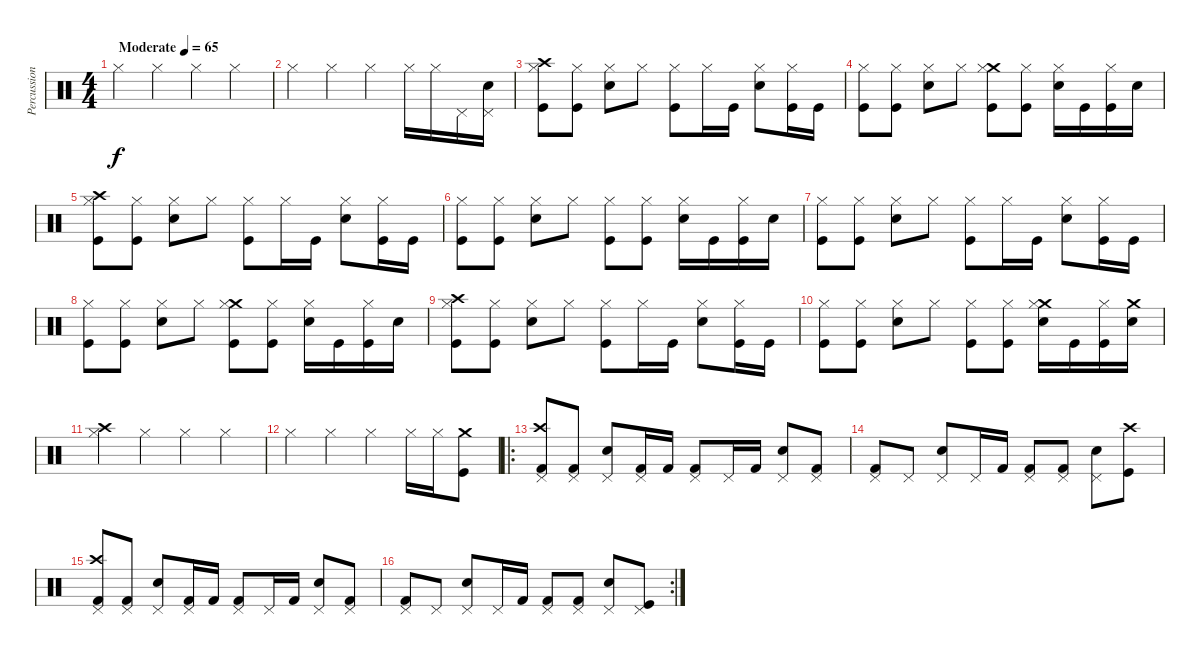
\track ("Percussion" "Percussion") {instrument percussion}
\staff {score}
\articulation defaults
\ts (4 4)
\tempo (65 "Moderate")
\clef neutral
\ks c "Hi-Hat (closed)".4{dy f} "Hi-Hat (closed)".4 "Hi-Hat (closed)".4 "Hi-Hat (closed)".4
|
"Hi-Hat (closed)".4 "Hi-Hat (closed)".4 "Hi-Hat (closed)".4 "Hi-Hat (closed)".16 "Hi-Hat (closed)".16 "Pedal Hi-Hat (hit)".16 ("Pedal Hi-Hat (hit)" "Electric Snare (hit)").16 |
("Crash high (hit)" "Hi-Hat (closed)" "Kick (hit)").8 ("Hi-Hat (closed)" "Kick (hit)").8 ("Hi-Hat (closed)" "Electric Snare (hit)").8 "Hi-Hat (closed)".8 ("Hi-Hat (closed)" "Kick (hit)").8 "Hi-Hat (closed)".16 "Kick (hit)".16 ("Hi-Hat (closed)" "Electric Snare (hit)").8 ("Hi-Hat (closed)" "Kick (hit)").16 "Kick (hit)".16 |
("Hi-Hat (closed)" "Kick (hit)").8 ("Hi-Hat (closed)" "Kick (hit)").8 ("Hi-Hat (closed)" "Electric Snare (hit)").8 "Hi-Hat (closed)".8 ("Crash medium (hit)" "Hi-Hat (closed)" "Kick (hit)").8 ("Hi-Hat (closed)" "Kick (hit)").8 ("Hi-Hat (closed)" "Electric Snare (hit)").16 "Kick (hit)".16 ("Hi-Hat (closed)" "Kick (hit)").16 "Electric Snare (hit)".16 |
("Crash high (hit)" "Hi-Hat (closed)" "Kick (hit)").8 ("Hi-Hat (closed)" "Kick (hit)").8 ("Hi-Hat (closed)" "Electric Snare (hit)").8 "Hi-Hat (closed)".8 ("Hi-Hat (closed)" "Kick (hit)").8 "Hi-Hat (closed)".16 "Kick (hit)".16 ("Hi-Hat (closed)" "Electric Snare (hit)").8 ("Hi-Hat (closed)" "Kick (hit)").16 "Kick (hit)".16 |
("Hi-Hat (closed)" "Kick (hit)").8 ("Hi-Hat (closed)" "Kick (hit)").8 ("Hi-Hat (closed)" "Electric Snare (hit)").8 "Hi-Hat (closed)".8 ("Hi-Hat (closed)" "Kick (hit)").8 ("Hi-Hat (closed)" "Kick (hit)").8 ("Hi-Hat (closed)" "Electric Snare (hit)").16 "Kick (hit)".16 ("Hi-Hat (closed)" "Kick (hit)").16 "Electric Snare (hit)".16 |
("Hi-Hat (closed)" "Kick (hit)").8 ("Hi-Hat (closed)" "Kick (hit)").8 ("Hi-Hat (closed)" "Electric Snare (hit)").8 "Hi-Hat (closed)".8 ("Hi-Hat (closed)" "Kick (hit)").8 "Hi-Hat (closed)".16 "Kick (hit)".16 ("Hi-Hat (closed)" "Electric Snare (hit)").8 ("Hi-Hat (closed)" "Kick (hit)").16 "Kick (hit)".16 |
("Hi-Hat (closed)" "Kick (hit)").8 ("Hi-Hat (closed)" "Kick (hit)").8 ("Hi-Hat (closed)" "Electric Snare (hit)").8 "Hi-Hat (closed)".8 ("Crash medium (hit)" "Hi-Hat (closed)" "Kick (hit)").8 ("Hi-Hat (closed)" "Kick (hit)").8 ("Hi-Hat (closed)" "Electric Snare (hit)").16 "Kick (hit)".16 ("Hi-Hat (closed)" "Kick (hit)").16 "Electric Snare (hit)".16 |
("Crash high (hit)" "Hi-Hat (closed)" "Kick (hit)").8 ("Hi-Hat (closed)" "Kick (hit)").8 ("Hi-Hat (closed)" "Electric Snare (hit)").8 "Hi-Hat (closed)".8 ("Hi-Hat (closed)" "Kick (hit)").8 "Hi-Hat (closed)".16 "Kick (hit)".16 ("Hi-Hat (closed)" "Electric Snare (hit)").8 ("Hi-Hat (closed)" "Kick (hit)").16 "Kick (hit)".16 |
("Hi-Hat (closed)" "Kick (hit)").8 ("Hi-Hat (closed)" "Kick (hit)").8 ("Hi-Hat (closed)" "Electric Snare (hit)").8 "Hi-Hat (closed)".8 ("Hi-Hat (closed)" "Kick (hit)").8 ("Hi-Hat (closed)" "Kick (hit)").8 ("Crash medium (hit)" "Hi-Hat (closed)" "Electric Snare (hit)").16 "Kick (hit)".16 ("Hi-Hat (closed)" "Kick (hit)").16 ("Crash medium (hit)" "Electric Snare (hit)").16 |
("Crash high (hit)" "Hi-Hat (closed)").4 "Hi-Hat (closed)".4 "Hi-Hat (closed)".4 "Hi-Hat (closed)".4 |
"Hi-Hat (closed)".4 "Hi-Hat (closed)".4 "Hi-Hat (closed)".4 "Hi-Hat (closed)".16 "Hi-Hat (closed)".16 ("Crash medium (hit)" "Kick (hit)").8 |
\ro
("Crash high (hit)" "Pedal Hi-Hat (hit)" "Kick (hit) 2").8 ("Pedal Hi-Hat (hit)" "Kick (hit) 2").8 ("Pedal Hi-Hat (hit)" "Electric Snare (hit)").8 ("Pedal Hi-Hat (hit)" "Kick (hit) 2").16 "Kick (hit) 2".16 ("Pedal Hi-Hat (hit)" "Kick (hit) 2").8 "Pedal Hi-Hat (hit)".16 "Kick (hit) 2".16 ("Pedal Hi-Hat (hit)" "Electric Snare (hit)").8 ("Pedal Hi-Hat (hit)" "Kick (hit) 2").8 |
("Pedal Hi-Hat (hit)" "Kick (hit) 2").8 "Pedal Hi-Hat (hit)".8 ("Pedal Hi-Hat (hit)" "Electric Snare (hit)").8 "Pedal Hi-Hat (hit)".16 "Kick (hit) 2".16 ("Pedal Hi-Hat (hit)" "Kick (hit) 2").8 ("Pedal Hi-Hat (hit)" "Kick (hit) 2").8 ("Pedal Hi-Hat (hit)" "Electric Snare (hit)").8 ("Crash high (hit)" "Kick (hit)").8 |
("Crash high (hit)" "Pedal Hi-Hat (hit)" "Kick (hit) 2").8 ("Pedal Hi-Hat (hit)" "Kick (hit) 2").8 ("Pedal Hi-Hat (hit)" "Electric Snare (hit)").8 ("Pedal Hi-Hat (hit)" "Kick (hit) 2").16 "Kick (hit) 2".16 ("Pedal Hi-Hat (hit)" "Kick (hit) 2").8 "Pedal Hi-Hat (hit)".16 "Kick (hit) 2".16 ("Pedal Hi-Hat (hit)" "Electric Snare (hit)").8 ("Pedal Hi-Hat (hit)" "Kick (hit) 2").8 |
\rc 2
("Pedal Hi-Hat (hit)" "Kick (hit) 2").8 "Pedal Hi-Hat (hit)".8 ("Pedal Hi-Hat (hit)" "Electric Snare (hit)").8 "Pedal Hi-Hat (hit)".16 "Kick (hit) 2".16 ("Pedal Hi-Hat (hit)" "Kick (hit) 2").8 ("Pedal Hi-Hat (hit)" "Kick (hit) 2").8 ("Pedal Hi-Hat (hit)" "Electric Snare (hit)").8 ("Pedal Hi-Hat (hit)" "Kick (hit)").8
